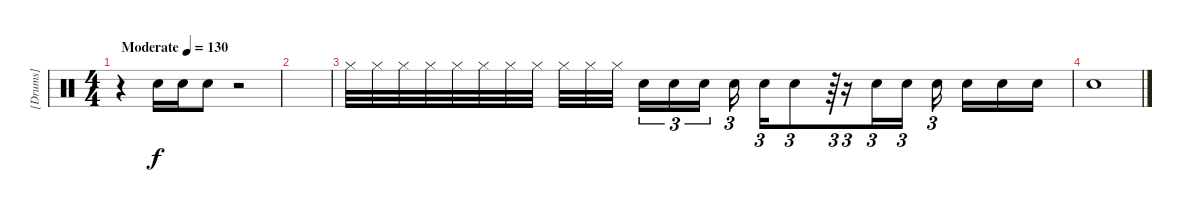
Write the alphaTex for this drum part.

\track ("[Drums]" "[Drums]") {instrument percussion}
\staff {score}
\articulation defaults
\ts (4 4)
\tempo (130 "Moderate")
\clef neutral
\ks c
r.4{dy f} "Electric Snare (hit)".16 "Electric Snare (hit)".16 "Electric Snare (hit)".8 r.2 |
|
"Hi-Hat (closed)".32 "Hi-Hat (closed)".32 "Hi-Hat (closed)".32 "Hi-Hat (closed)".32 "Hi-Hat (closed)".32 "Hi-Hat (closed)".32 "Hi-Hat (closed)".32 "Hi-Hat (closed)".32 "Hi-Hat (closed)".32 "Hi-Hat (closed)".32 "Hi-Hat (closed)".32{beam splitsecondary} "Electric Snare (hit)".16{tu (3 2)} "Electric Snare (hit)".16{tu (3 2)} "Electric Snare (hit)".16{tu (3 2) beam splitsecondary} "Electric Snare (hit)".16{tu (3 2)} "Electric Snare (hit)".16{tu (3 2)} "Electric Snare (hit)".8{tu (3 2)} r.64{tu (3 2)} r.16{tu (3 2)} "Electric Snare (hit)".16{tu (3 2)} "Electric Snare (hit)".16{tu (3 2)} "Electric Snare (hit)".16{tu (3 2) beam splitsecondary} "Electric Snare (hit)".16 "Electric Snare (hit)".16 "Electric Snare (hit)".16 |
"Electric Snare (hit)".1
